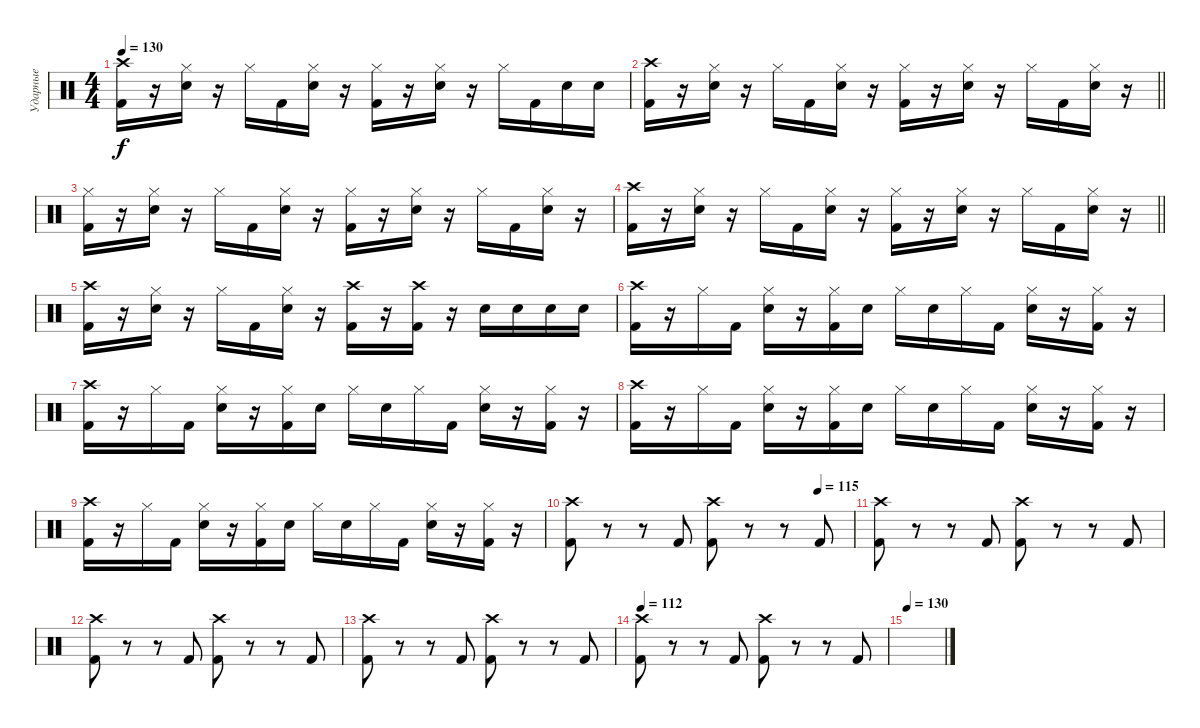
\track ("Ударные" "Ударные") {instrument percussion}
\staff {score}
\articulation defaults
\ts (4 4)
\tempo 130
\clef neutral
\ks c
("Kick (hit) 2" "Crash high (hit)").16{dy f} r.16 ("Electric Snare (hit)" "Hi-Hat (closed)").16 r.16 "Hi-Hat (closed)".16 "Kick (hit) 2".16 ("Electric Snare (hit)" "Hi-Hat (closed)").16 r.16 ("Kick (hit) 2" "Hi-Hat (closed)").16 r.16 ("Electric Snare (hit)" "Hi-Hat (closed)").16 r.16 "Hi-Hat (closed)".16 "Kick (hit) 2".16 "Electric Snare (hit)".16 "Electric Snare (hit)".16 |
\barLineRight lightlight
("Kick (hit) 2" "Crash high (hit)").16 r.16 ("Electric Snare (hit)" "Hi-Hat (closed)").16 r.16 "Hi-Hat (closed)".16 "Kick (hit) 2".16 ("Electric Snare (hit)" "Hi-Hat (closed)").16 r.16 ("Kick (hit) 2" "Hi-Hat (closed)").16 r.16 ("Electric Snare (hit)" "Hi-Hat (closed)").16 r.16 "Hi-Hat (closed)".16 "Kick (hit) 2".16 ("Electric Snare (hit)" "Hi-Hat (closed)").16 r.16 |
("Kick (hit) 2" "Hi-Hat (closed)").16 r.16 ("Electric Snare (hit)" "Hi-Hat (closed)").16 r.16 "Hi-Hat (closed)".16 "Kick (hit) 2".16 ("Electric Snare (hit)" "Hi-Hat (closed)").16 r.16 ("Kick (hit) 2" "Hi-Hat (closed)").16 r.16 ("Electric Snare (hit)" "Hi-Hat (closed)").16 r.16 "Hi-Hat (closed)".16 "Kick (hit) 2".16 ("Electric Snare (hit)" "Hi-Hat (closed)").16 r.16 |
\barLineRight lightlight
("Kick (hit) 2" "Crash high (hit)").16 r.16 ("Electric Snare (hit)" "Hi-Hat (closed)").16 r.16 "Hi-Hat (closed)".16 "Kick (hit) 2".16 ("Electric Snare (hit)" "Hi-Hat (closed)").16 r.16 ("Kick (hit) 2" "Hi-Hat (closed)").16 r.16 ("Electric Snare (hit)" "Hi-Hat (closed)").16 r.16 "Hi-Hat (closed)".16 "Kick (hit) 2".16 ("Electric Snare (hit)" "Hi-Hat (closed)").16 r.16 |
("Kick (hit) 2" "Crash high (hit)").16 r.16 ("Electric Snare (hit)" "Hi-Hat (closed)").16 r.16 "Hi-Hat (closed)".16 "Kick (hit) 2".16 ("Electric Snare (hit)" "Hi-Hat (closed)").16 r.16 ("Kick (hit) 2" "Crash high (hit)").16 r.16 ("Kick (hit) 2" "Crash high (hit)").16 r.16 "Electric Snare (hit)".16 "Electric Snare (hit)".16 "Electric Snare (hit)".16 "Electric Snare (hit)".16 |
("Kick (hit) 2" "Crash high (hit)").16 r.16 "Hi-Hat (closed)".16 "Kick (hit) 2".16 ("Electric Snare (hit)" "Hi-Hat (closed)").16 r.16 ("Kick (hit) 2" "Hi-Hat (closed)").16 "Electric Snare (hit)".16 "Hi-Hat (closed)".16 "Electric Snare (hit)".16 "Hi-Hat (closed)".16 "Kick (hit) 2".16 ("Electric Snare (hit)" "Hi-Hat (closed)").16 r.16 ("Kick (hit) 2" "Hi-Hat (closed)").16 r.16 |
("Kick (hit) 2" "Crash high (hit)").16 r.16 "Hi-Hat (closed)".16 "Kick (hit) 2".16 ("Electric Snare (hit)" "Hi-Hat (closed)").16 r.16 ("Kick (hit) 2" "Hi-Hat (closed)").16 "Electric Snare (hit)".16 "Hi-Hat (closed)".16 "Electric Snare (hit)".16 "Hi-Hat (closed)".16 "Kick (hit) 2".16 ("Electric Snare (hit)" "Hi-Hat (closed)").16 r.16 ("Kick (hit) 2" "Hi-Hat (closed)").16 r.16 |
("Kick (hit) 2" "Crash high (hit)").16 r.16 "Hi-Hat (closed)".16 "Kick (hit) 2".16 ("Electric Snare (hit)" "Hi-Hat (closed)").16 r.16 ("Kick (hit) 2" "Hi-Hat (closed)").16 "Electric Snare (hit)".16 "Hi-Hat (closed)".16 "Electric Snare (hit)".16 "Hi-Hat (closed)".16 "Kick (hit) 2".16 ("Electric Snare (hit)" "Hi-Hat (closed)").16 r.16 ("Kick (hit) 2" "Hi-Hat (closed)").16 r.16 |
("Kick (hit) 2" "Crash high (hit)").16 r.16 "Hi-Hat (closed)".16 "Kick (hit) 2".16 ("Electric Snare (hit)" "Hi-Hat (closed)").16 r.16 ("Kick (hit) 2" "Hi-Hat (closed)").16 "Electric Snare (hit)".16 "Hi-Hat (closed)".16 "Electric Snare (hit)".16 "Hi-Hat (closed)".16 "Kick (hit) 2".16 ("Electric Snare (hit)" "Hi-Hat (closed)").16 r.16 ("Kick (hit) 2" "Hi-Hat (closed)").16 r.16 |
\tempo (115 0.875)
("Kick (hit) 2" "Crash high (hit)").8 r.8 r.8 "Kick (hit) 2".8 ("Kick (hit) 2" "Crash high (hit)").8 r.8 r.8 "Kick (hit) 2".8 |
("Kick (hit) 2" "Crash high (hit)").8 r.8 r.8 "Kick (hit) 2".8 ("Kick (hit) 2" "Crash high (hit)").8 r.8 r.8 "Kick (hit) 2".8 |
("Kick (hit) 2" "Crash high (hit)").8 r.8 r.8 "Kick (hit) 2".8 ("Kick (hit) 2" "Crash high (hit)").8 r.8 r.8 "Kick (hit) 2".8 |
("Kick (hit) 2" "Crash high (hit)").8 r.8 r.8 "Kick (hit) 2".8 ("Kick (hit) 2" "Crash high (hit)").8 r.8 r.8 "Kick (hit) 2".8 |
\tempo 112
("Kick (hit) 2" "Crash high (hit)").8 r.8 r.8 "Kick (hit) 2".8 ("Kick (hit) 2" "Crash high (hit)").8 r.8 r.8 "Kick (hit) 2".8 |
\tempo 130
